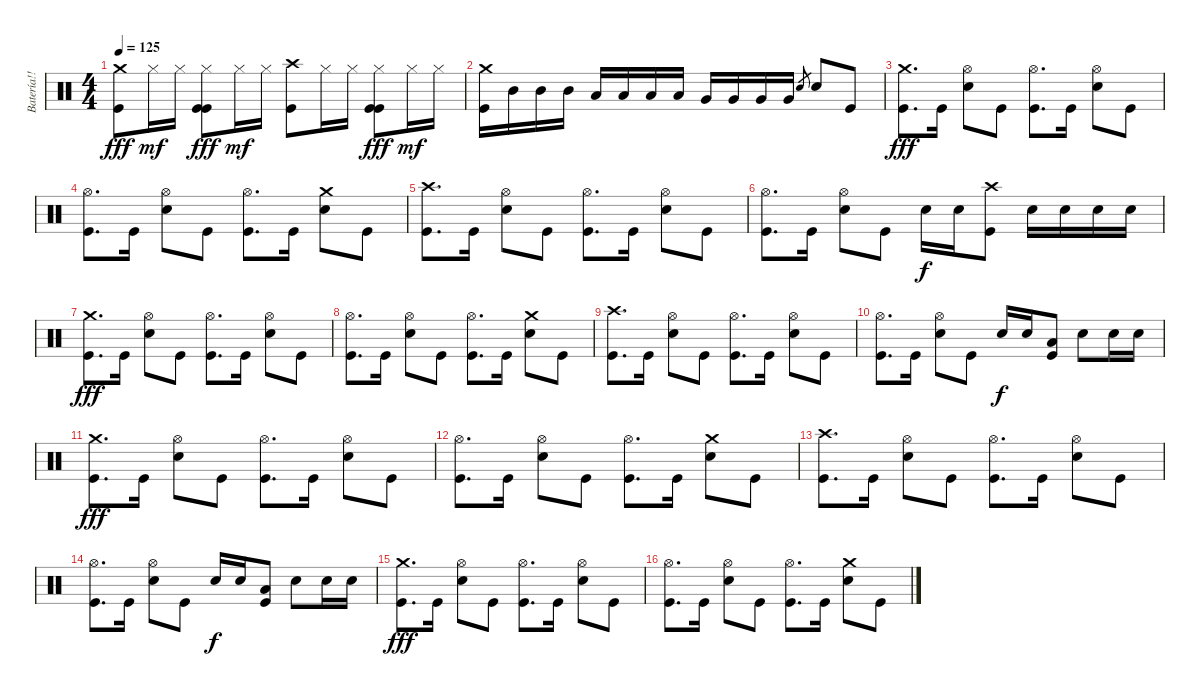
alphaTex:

\track ("Batería!! >_<" "Batería!! ") {instrument percussion}
\staff {score}
\articulation defaults
\ts (4 4)
\tempo 125
\clef neutral
\ks c
("Crash medium (hit)" "Kick (hit)").8{dy fff} "Hi-Hat (closed)".16{dy mf} "Hi-Hat (closed)".16 ("Hi-Hat (closed)" "Kick (hit)" "Kick (hit)").8{dy fff} "Hi-Hat (closed)".16{dy mf} "Hi-Hat (closed)".16 ("Crash high (hit)" "Kick (hit)").8 "Hi-Hat (closed)".16 "Hi-Hat (closed)".16 ("Hi-Hat (closed)" "Kick (hit)" "Kick (hit)").8{dy fff} "Hi-Hat (closed)".16{dy mf} "Hi-Hat (closed)".16 |
("Crash medium (hit)" "Kick (hit)").16 "Mid Tom (hit)".16 "Mid Tom (hit)".16 "Mid Tom (hit)".16 "Low Tom (hit)".16 "Low Tom (hit)".16 "Low Tom (hit)".16 "Low Tom (hit)".16 "Very Low Tom (hit)".16 "Very Low Tom (hit)".16 "Very Low Tom (hit)".16 "Very Low Tom (hit)".16 "Snare (hit) 2".8{gr} "Snare (hit) 2".8 "Kick (hit)".8 |
("Crash medium (hit)" "Kick (hit)").8{d dy fff} "Kick (hit)".16 ("Hi-Hat (open)" "Snare (hit) 2").8 "Kick (hit)".8 ("Hi-Hat (open)" "Kick (hit)").8{d} "Kick (hit)".16 ("Hi-Hat (open)" "Snare (hit) 2").8 "Kick (hit)".8 |
("Hi-Hat (open)" "Kick (hit)").8{d} "Kick (hit)".16 ("Hi-Hat (open)" "Snare (hit) 2").8 "Kick (hit)".8 ("Hi-Hat (open)" "Kick (hit)").8{d} "Kick (hit)".16 ("Crash medium (hit)" "Snare (hit) 2").8 "Kick (hit)".8 |
("Crash high (hit)" "Kick (hit)").8{d} "Kick (hit)".16 ("Hi-Hat (open)" "Snare (hit) 2").8 "Kick (hit)".8 ("Hi-Hat (open)" "Kick (hit)").8{d} "Kick (hit)".16 ("Hi-Hat (open)" "Snare (hit) 2").8 "Kick (hit)".8 |
("Hi-Hat (open)" "Kick (hit)").8{d} "Kick (hit)".16 ("Hi-Hat (open)" "Snare (hit) 2").8 "Kick (hit)".8 "Snare (hit) 2".16{dy f} "Snare (hit) 2".16 ("Crash high (hit)" "Kick (hit)").8 "Snare (hit) 2".16 "Snare (hit) 2".16 "Snare (hit) 2".16 "Snare (hit) 2".16 |
("Crash medium (hit)" "Kick (hit)").8{d dy fff} "Kick (hit)".16 ("Hi-Hat (open)" "Snare (hit) 2").8 "Kick (hit)".8 ("Hi-Hat (open)" "Kick (hit)").8{d} "Kick (hit)".16 ("Hi-Hat (open)" "Snare (hit) 2").8 "Kick (hit)".8 |
("Hi-Hat (open)" "Kick (hit)").8{d} "Kick (hit)".16 ("Hi-Hat (open)" "Snare (hit) 2").8 "Kick (hit)".8 ("Hi-Hat (open)" "Kick (hit)").8{d} "Kick (hit)".16 ("Crash medium (hit)" "Snare (hit) 2").8 "Kick (hit)".8 |
("Crash high (hit)" "Kick (hit)").8{d} "Kick (hit)".16 ("Hi-Hat (open)" "Snare (hit) 2").8 "Kick (hit)".8 ("Hi-Hat (open)" "Kick (hit)").8{d} "Kick (hit)".16 ("Hi-Hat (open)" "Snare (hit) 2").8 "Kick (hit)".8 |
("Hi-Hat (open)" "Kick (hit)").8{d} "Kick (hit)".16 ("Hi-Hat (open)" "Snare (hit) 2").8 "Kick (hit)".8 "Snare (hit) 2".16{dy f} "Snare (hit) 2".16 ("Low Tom (hit)" "Kick (hit)").8 "Snare (hit) 2".8 "Snare (hit) 2".16 "Snare (hit) 2".16 |
("Crash medium (hit)" "Kick (hit)").8{d dy fff} "Kick (hit)".16 ("Hi-Hat (open)" "Snare (hit) 2").8 "Kick (hit)".8 ("Hi-Hat (open)" "Kick (hit)").8{d} "Kick (hit)".16 ("Hi-Hat (open)" "Snare (hit) 2").8 "Kick (hit)".8 |
("Hi-Hat (open)" "Kick (hit)").8{d} "Kick (hit)".16 ("Hi-Hat (open)" "Snare (hit) 2").8 "Kick (hit)".8 ("Hi-Hat (open)" "Kick (hit)").8{d} "Kick (hit)".16 ("Crash medium (hit)" "Snare (hit) 2").8 "Kick (hit)".8 |
("Crash high (hit)" "Kick (hit)").8{d} "Kick (hit)".16 ("Hi-Hat (open)" "Snare (hit) 2").8 "Kick (hit)".8 ("Hi-Hat (open)" "Kick (hit)").8{d} "Kick (hit)".16 ("Hi-Hat (open)" "Snare (hit) 2").8 "Kick (hit)".8 |
("Hi-Hat (open)" "Kick (hit)").8{d} "Kick (hit)".16 ("Hi-Hat (open)" "Snare (hit) 2").8 "Kick (hit)".8 "Snare (hit) 2".16{dy f} "Snare (hit) 2".16 ("Low Tom (hit)" "Kick (hit)").8 "Snare (hit) 2".8 "Snare (hit) 2".16 "Snare (hit) 2".16 |
("Crash medium (hit)" "Kick (hit)").8{d dy fff} "Kick (hit)".16 ("Hi-Hat (open)" "Snare (hit) 2").8 "Kick (hit)".8 ("Hi-Hat (open)" "Kick (hit)").8{d} "Kick (hit)".16 ("Hi-Hat (open)" "Snare (hit) 2").8 "Kick (hit)".8 |
("Hi-Hat (open)" "Kick (hit)").8{d} "Kick (hit)".16 ("Hi-Hat (open)" "Snare (hit) 2").8 "Kick (hit)".8 ("Hi-Hat (open)" "Kick (hit)").8{d} "Kick (hit)".16 ("Crash medium (hit)" "Snare (hit) 2").8 "Kick (hit)".8
